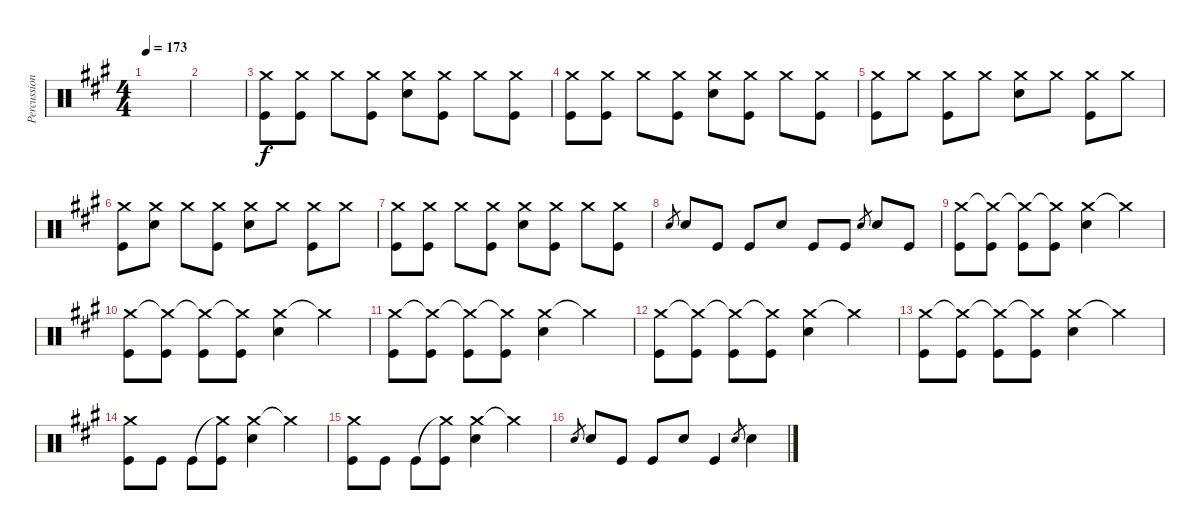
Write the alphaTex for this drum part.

\track ("Percussions" "Percussion") {instrument percussion}
\staff {score}
\articulation defaults
\ts (4 4)
\tempo 173
\clef neutral
\ks a
|
|
("Crash medium (hit)" "Kick (hit)").8 ("Crash medium (hit)" "Kick (hit)").8 "Crash medium (hit)".8 ("Crash medium (hit)" "Kick (hit)").8 ("Crash medium (hit)" "Electric Snare (hit)").8 ("Crash medium (hit)" "Kick (hit)").8 "Crash medium (hit)".8 ("Crash medium (hit)" "Kick (hit)").8 |
("Crash medium (hit)" "Kick (hit)").8 ("Crash medium (hit)" "Kick (hit)").8 "Crash medium (hit)".8 ("Crash medium (hit)" "Kick (hit)").8 ("Crash medium (hit)" "Electric Snare (hit)").8 ("Crash medium (hit)" "Kick (hit)").8 "Crash medium (hit)".8 ("Crash medium (hit)" "Kick (hit)").8 |
("Crash medium (hit)" "Kick (hit)").8 "Crash medium (hit)".8 ("Crash medium (hit)" "Kick (hit)").8 "Crash medium (hit)".8 ("Crash medium (hit)" "Electric Snare (hit)").8 "Crash medium (hit)".8 ("Crash medium (hit)" "Kick (hit)").8 "Crash medium (hit)".8 |
("Crash medium (hit)" "Kick (hit)").8 ("Crash medium (hit)" "Electric Snare (hit)").8 "Crash medium (hit)".8 ("Crash medium (hit)" "Kick (hit)").8 ("Crash medium (hit)" "Electric Snare (hit)").8 "Crash medium (hit)".8 ("Crash medium (hit)" "Kick (hit)").8 "Crash medium (hit)".8 |
("Crash medium (hit)" "Kick (hit)").8 ("Crash medium (hit)" "Kick (hit)").8 "Crash medium (hit)".8 ("Crash medium (hit)" "Kick (hit)").8 ("Crash medium (hit)" "Electric Snare (hit)").8 ("Crash medium (hit)" "Kick (hit)").8 "Crash medium (hit)".8 ("Crash medium (hit)" "Kick (hit)").8 |
"Electric Snare (hit)".8{gr} "Electric Snare (hit)".8 "Kick (hit)".8 "Kick (hit)".8 "Electric Snare (hit)".8 "Kick (hit)".8 "Kick (hit)".8 "Electric Snare (hit)".8{gr} "Electric Snare (hit)".8 "Kick (hit)".8 |
("Crash medium (hit)" "Kick (hit)").8 ("Crash medium (hit)"{t} "Kick (hit)").8 ("Crash medium (hit)"{t} "Kick (hit)").8 ("Crash medium (hit)"{t} "Kick (hit)").8 ("Crash medium (hit)" "Electric Snare (hit)").4 "Crash medium (hit)"{t}.4 |
("Crash medium (hit)" "Kick (hit)").8 ("Crash medium (hit)"{t} "Kick (hit)").8 ("Crash medium (hit)"{t} "Kick (hit)").8 ("Crash medium (hit)"{t} "Kick (hit)").8 ("Crash medium (hit)" "Electric Snare (hit)").4 "Crash medium (hit)"{t}.4 |
("Crash medium (hit)" "Kick (hit)").8 ("Crash medium (hit)"{t} "Kick (hit)").8 ("Crash medium (hit)"{t} "Kick (hit)").8 ("Crash medium (hit)"{t} "Kick (hit)").8 ("Crash medium (hit)" "Electric Snare (hit)").4 "Crash medium (hit)"{t}.4 |
("Crash medium (hit)" "Kick (hit)").8 ("Crash medium (hit)"{t} "Kick (hit)").8 ("Crash medium (hit)"{t} "Kick (hit)").8 ("Crash medium (hit)"{t} "Kick (hit)").8 ("Crash medium (hit)" "Electric Snare (hit)").4 "Crash medium (hit)"{t}.4 |
("Crash medium (hit)" "Kick (hit)").8 ("Crash medium (hit)"{t} "Kick (hit)").8 ("Crash medium (hit)"{t} "Kick (hit)").8 ("Crash medium (hit)"{t} "Kick (hit)").8 ("Crash medium (hit)" "Electric Snare (hit)").4 "Crash medium (hit)"{t}.4 |
("Crash medium (hit)" "Kick (hit)").8 "Kick (hit)".8 "Kick (hit)".8 ("Crash medium (hit)"{t} "Kick (hit)").8 ("Crash medium (hit)" "Electric Snare (hit)").4 "Crash medium (hit)"{t}.4 |
("Crash medium (hit)" "Kick (hit)").8 "Kick (hit)".8 "Kick (hit)".8 ("Crash medium (hit)"{t} "Kick (hit)").8 ("Crash medium (hit)" "Electric Snare (hit)").4 "Crash medium (hit)"{t}.4 |
"Electric Snare (hit)".8{gr} "Electric Snare (hit)".8 "Kick (hit)".8 "Kick (hit)".8 "Electric Snare (hit)".8 "Kick (hit)".4 "Electric Snare (hit)".8{gr} "Electric Snare (hit)".4
